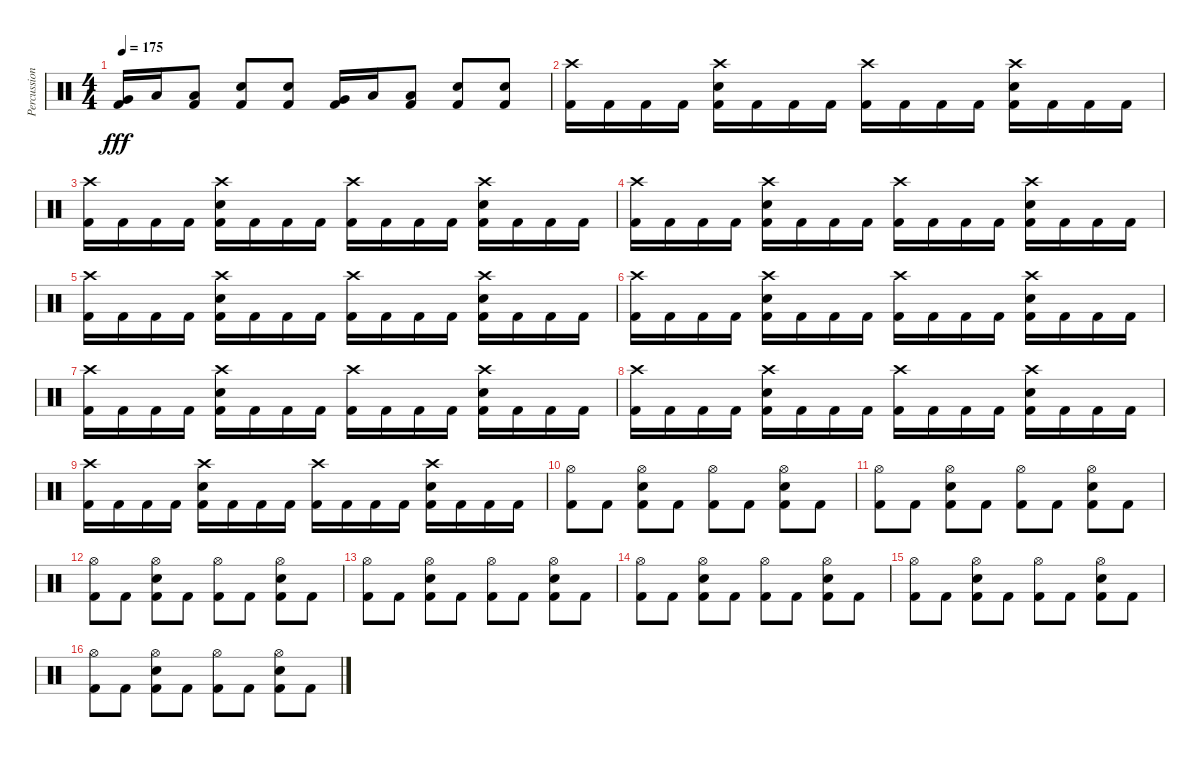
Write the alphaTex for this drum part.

\track ("Percussion" "Percussion") {instrument percussion}
\staff {score}
\articulation defaults
\ts (4 4)
\tempo 175
\clef neutral
\ks c
("Kick (hit) 2" "Very Low Tom (hit)").16{dy fff} "Low Floor Tom (hit)".16 ("Kick (hit) 2" "Low Floor Tom (hit)").8 ("Kick (hit) 2" "Electric Snare (hit)").8 ("Kick (hit) 2" "Electric Snare (hit)").8 ("Kick (hit) 2" "Very Low Tom (hit)").16 "Low Floor Tom (hit)".16 ("Kick (hit) 2" "Low Floor Tom (hit)").8 ("Kick (hit) 2" "Electric Snare (hit)").8 ("Kick (hit) 2" "Electric Snare (hit)").8 |
("Kick (hit) 2" "Crash high (hit)").16 "Kick (hit) 2".16 "Kick (hit) 2".16 "Kick (hit) 2".16 ("Kick (hit) 2" "Electric Snare (hit)" "Crash high (hit)").16 "Kick (hit) 2".16 "Kick (hit) 2".16 "Kick (hit) 2".16 ("Kick (hit) 2" "Crash high (hit)").16 "Kick (hit) 2".16 "Kick (hit) 2".16 "Kick (hit) 2".16 ("Kick (hit) 2" "Electric Snare (hit)" "Crash high (hit)").16 "Kick (hit) 2".16 "Kick (hit) 2".16 "Kick (hit) 2".16 |
("Kick (hit) 2" "Crash high (hit)").16 "Kick (hit) 2".16 "Kick (hit) 2".16 "Kick (hit) 2".16 ("Kick (hit) 2" "Electric Snare (hit)" "Crash high (hit)").16 "Kick (hit) 2".16 "Kick (hit) 2".16 "Kick (hit) 2".16 ("Kick (hit) 2" "Crash high (hit)").16 "Kick (hit) 2".16 "Kick (hit) 2".16 "Kick (hit) 2".16 ("Kick (hit) 2" "Electric Snare (hit)" "Crash high (hit)").16 "Kick (hit) 2".16 "Kick (hit) 2".16 "Kick (hit) 2".16 |
("Kick (hit) 2" "Crash high (hit)").16 "Kick (hit) 2".16 "Kick (hit) 2".16 "Kick (hit) 2".16 ("Kick (hit) 2" "Electric Snare (hit)" "Crash high (hit)").16 "Kick (hit) 2".16 "Kick (hit) 2".16 "Kick (hit) 2".16 ("Kick (hit) 2" "Crash high (hit)").16 "Kick (hit) 2".16 "Kick (hit) 2".16 "Kick (hit) 2".16 ("Kick (hit) 2" "Electric Snare (hit)" "Crash high (hit)").16 "Kick (hit) 2".16 "Kick (hit) 2".16 "Kick (hit) 2".16 |
("Kick (hit) 2" "Crash high (hit)").16 "Kick (hit) 2".16 "Kick (hit) 2".16 "Kick (hit) 2".16 ("Kick (hit) 2" "Electric Snare (hit)" "Crash high (hit)").16 "Kick (hit) 2".16 "Kick (hit) 2".16 "Kick (hit) 2".16 ("Kick (hit) 2" "Crash high (hit)").16 "Kick (hit) 2".16 "Kick (hit) 2".16 "Kick (hit) 2".16 ("Kick (hit) 2" "Electric Snare (hit)" "Crash high (hit)").16 "Kick (hit) 2".16 "Kick (hit) 2".16 "Kick (hit) 2".16 |
("Kick (hit) 2" "Crash high (hit)").16 "Kick (hit) 2".16 "Kick (hit) 2".16 "Kick (hit) 2".16 ("Kick (hit) 2" "Electric Snare (hit)" "Crash high (hit)").16 "Kick (hit) 2".16 "Kick (hit) 2".16 "Kick (hit) 2".16 ("Kick (hit) 2" "Crash high (hit)").16 "Kick (hit) 2".16 "Kick (hit) 2".16 "Kick (hit) 2".16 ("Kick (hit) 2" "Electric Snare (hit)" "Crash high (hit)").16 "Kick (hit) 2".16 "Kick (hit) 2".16 "Kick (hit) 2".16 |
("Kick (hit) 2" "Crash high (hit)").16 "Kick (hit) 2".16 "Kick (hit) 2".16 "Kick (hit) 2".16 ("Kick (hit) 2" "Electric Snare (hit)" "Crash high (hit)").16 "Kick (hit) 2".16 "Kick (hit) 2".16 "Kick (hit) 2".16 ("Kick (hit) 2" "Crash high (hit)").16 "Kick (hit) 2".16 "Kick (hit) 2".16 "Kick (hit) 2".16 ("Kick (hit) 2" "Electric Snare (hit)" "Crash high (hit)").16 "Kick (hit) 2".16 "Kick (hit) 2".16 "Kick (hit) 2".16 |
("Kick (hit) 2" "Crash high (hit)").16 "Kick (hit) 2".16 "Kick (hit) 2".16 "Kick (hit) 2".16 ("Kick (hit) 2" "Electric Snare (hit)" "Crash high (hit)").16 "Kick (hit) 2".16 "Kick (hit) 2".16 "Kick (hit) 2".16 ("Kick (hit) 2" "Crash high (hit)").16 "Kick (hit) 2".16 "Kick (hit) 2".16 "Kick (hit) 2".16 ("Kick (hit) 2" "Electric Snare (hit)" "Crash high (hit)").16 "Kick (hit) 2".16 "Kick (hit) 2".16 "Kick (hit) 2".16 |
("Kick (hit) 2" "Crash high (hit)").16 "Kick (hit) 2".16 "Kick (hit) 2".16 "Kick (hit) 2".16 ("Kick (hit) 2" "Electric Snare (hit)" "Crash high (hit)").16 "Kick (hit) 2".16 "Kick (hit) 2".16 "Kick (hit) 2".16 ("Kick (hit) 2" "Crash high (hit)").16 "Kick (hit) 2".16 "Kick (hit) 2".16 "Kick (hit) 2".16 ("Kick (hit) 2" "Electric Snare (hit)" "Crash high (hit)").16 "Kick (hit) 2".16 "Kick (hit) 2".16 "Kick (hit) 2".16 |
("Kick (hit) 2" "Hi-Hat (open)").8 "Kick (hit) 2".8 ("Kick (hit) 2" "Electric Snare (hit)" "Hi-Hat (open)").8 "Kick (hit) 2".8 ("Kick (hit) 2" "Hi-Hat (open)").8 "Kick (hit) 2".8 ("Kick (hit) 2" "Electric Snare (hit)" "Hi-Hat (open)").8 "Kick (hit) 2".8 |
("Kick (hit) 2" "Hi-Hat (open)").8 "Kick (hit) 2".8 ("Kick (hit) 2" "Electric Snare (hit)" "Hi-Hat (open)").8 "Kick (hit) 2".8 ("Kick (hit) 2" "Hi-Hat (open)").8 "Kick (hit) 2".8 ("Kick (hit) 2" "Electric Snare (hit)" "Hi-Hat (open)").8 "Kick (hit) 2".8 |
("Kick (hit) 2" "Hi-Hat (open)").8 "Kick (hit) 2".8 ("Kick (hit) 2" "Electric Snare (hit)" "Hi-Hat (open)").8 "Kick (hit) 2".8 ("Kick (hit) 2" "Hi-Hat (open)").8 "Kick (hit) 2".8 ("Kick (hit) 2" "Electric Snare (hit)" "Hi-Hat (open)").8 "Kick (hit) 2".8 |
("Kick (hit) 2" "Hi-Hat (open)").8 "Kick (hit) 2".8 ("Kick (hit) 2" "Electric Snare (hit)" "Hi-Hat (open)").8 "Kick (hit) 2".8 ("Kick (hit) 2" "Hi-Hat (open)").8 "Kick (hit) 2".8 ("Kick (hit) 2" "Electric Snare (hit)" "Hi-Hat (open)").8 "Kick (hit) 2".8 |
("Kick (hit) 2" "Hi-Hat (open)").8 "Kick (hit) 2".8 ("Kick (hit) 2" "Electric Snare (hit)" "Hi-Hat (open)").8 "Kick (hit) 2".8 ("Kick (hit) 2" "Hi-Hat (open)").8 "Kick (hit) 2".8 ("Kick (hit) 2" "Electric Snare (hit)" "Hi-Hat (open)").8 "Kick (hit) 2".8 |
("Kick (hit) 2" "Hi-Hat (open)").8 "Kick (hit) 2".8 ("Kick (hit) 2" "Electric Snare (hit)" "Hi-Hat (open)").8 "Kick (hit) 2".8 ("Kick (hit) 2" "Hi-Hat (open)").8 "Kick (hit) 2".8 ("Kick (hit) 2" "Electric Snare (hit)" "Hi-Hat (open)").8 "Kick (hit) 2".8 |
("Kick (hit) 2" "Hi-Hat (open)").8 "Kick (hit) 2".8 ("Kick (hit) 2" "Electric Snare (hit)" "Hi-Hat (open)").8 "Kick (hit) 2".8 ("Kick (hit) 2" "Hi-Hat (open)").8 "Kick (hit) 2".8 ("Kick (hit) 2" "Electric Snare (hit)" "Hi-Hat (open)").8 "Kick (hit) 2".8
